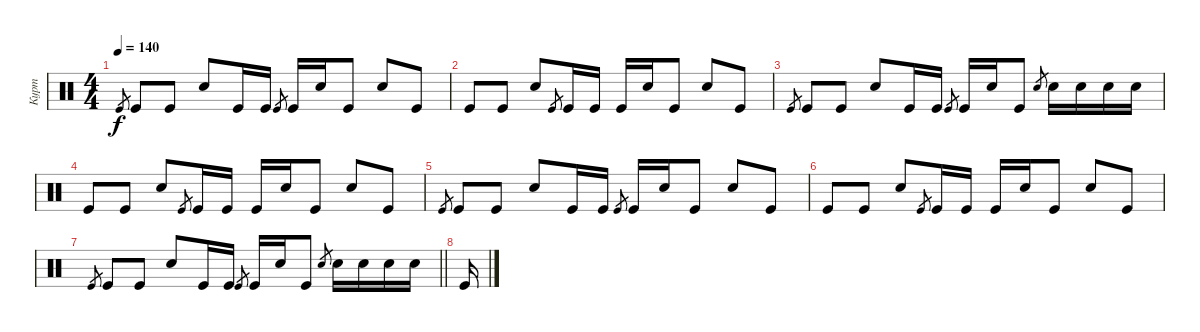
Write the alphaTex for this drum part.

\track ("Курт" "Курт") {instrument percussion}
\staff {score}
\articulation defaults
\ts (4 4)
\tempo 140
\clef neutral
\ks c "Kick (hit)".8{gr dy f} "Kick (hit)".8 "Kick (hit)".8 "Snare (hit) 2".8 "Kick (hit)".16 "Kick (hit)".16 "Kick (hit)".8{gr} "Kick (hit)".16 "Snare (hit) 2".16 "Kick (hit)".8 "Snare (hit) 2".8 "Kick (hit)".8
|
"Kick (hit)".8 "Kick (hit)".8 "Snare (hit) 2".8 "Kick (hit)".8{gr} "Kick (hit)".16 "Kick (hit)".16 "Kick (hit)".16 "Snare (hit) 2".16 "Kick (hit)".8 "Snare (hit) 2".8 "Kick (hit)".8 |
"Kick (hit)".8{gr} "Kick (hit)".8 "Kick (hit)".8 "Snare (hit) 2".8 "Kick (hit)".16 "Kick (hit)".16 "Kick (hit)".8{gr} "Kick (hit)".16 "Snare (hit) 2".16 "Kick (hit)".8 "Snare (hit) 2".8{gr} "Snare (hit) 2".16 "Snare (hit) 2".16 "Snare (hit) 2".16 "Snare (hit) 2".16 |
"Kick (hit)".8 "Kick (hit)".8 "Snare (hit) 2".8 "Kick (hit)".8{gr} "Kick (hit)".16 "Kick (hit)".16 "Kick (hit)".16 "Snare (hit) 2".16 "Kick (hit)".8 "Snare (hit) 2".8 "Kick (hit)".8 |
"Kick (hit)".8{gr} "Kick (hit)".8 "Kick (hit)".8 "Snare (hit) 2".8 "Kick (hit)".16 "Kick (hit)".16 "Kick (hit)".8{gr} "Kick (hit)".16 "Snare (hit) 2".16 "Kick (hit)".8 "Snare (hit) 2".8 "Kick (hit)".8 |
"Kick (hit)".8 "Kick (hit)".8 "Snare (hit) 2".8 "Kick (hit)".8{gr} "Kick (hit)".16 "Kick (hit)".16 "Kick (hit)".16 "Snare (hit) 2".16 "Kick (hit)".8 "Snare (hit) 2".8 "Kick (hit)".8 |
\barLineRight lightlight "Kick (hit)".8{gr} "Kick (hit)".8 "Kick (hit)".8 "Snare (hit) 2".8 "Kick (hit)".16 "Kick (hit)".16 "Kick (hit)".8{gr} "Kick (hit)".16 "Snare (hit) 2".16 "Kick (hit)".8 "Snare (hit) 2".8{gr} "Snare (hit) 2".16 "Snare (hit) 2".16 "Snare (hit) 2".16 "Snare (hit) 2".16
|
"Kick (hit)".16
